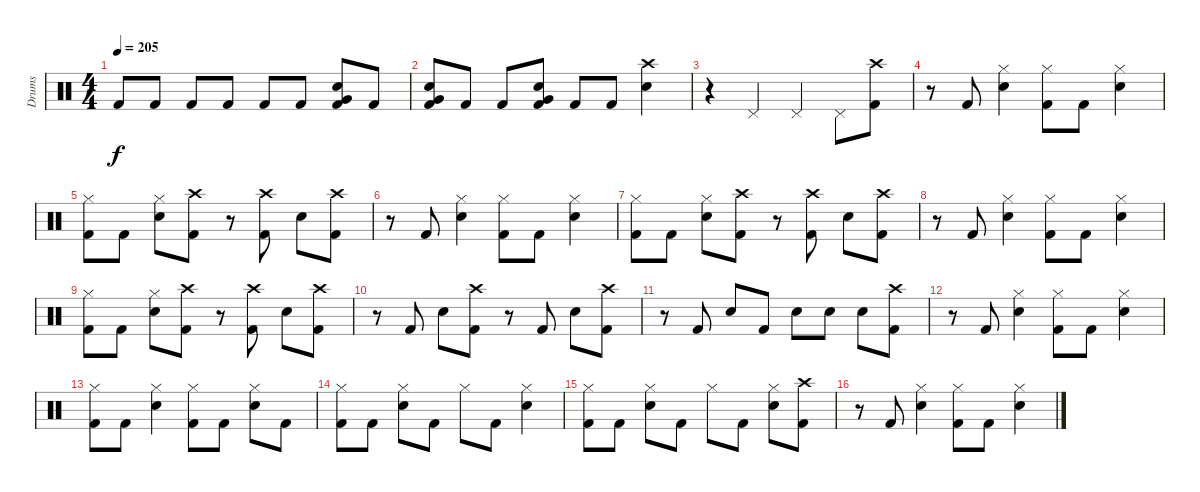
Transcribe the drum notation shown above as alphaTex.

\track ("Drums" "Drums") {instrument percussion}
\staff {score}
\articulation defaults
\ts (4 4)
\tempo 205
\clef neutral
\ks c "Kick (hit) 2".8{dy f} "Kick (hit) 2".8 "Kick (hit) 2".8 "Kick (hit) 2".8 "Kick (hit) 2".8 "Kick (hit) 2".8
("Kick (hit) 2" "Very Low Tom (hit)" "Snare (hit) 2").8 "Kick (hit) 2".8 |
("Kick (hit) 2" "Very Low Tom (hit)" "Snare (hit) 2").8 "Kick (hit) 2".8 "Kick (hit) 2".8 ("Kick (hit) 2" "Very Low Tom (hit)" "Snare (hit) 2").8 "Kick (hit) 2".8 "Kick (hit) 2".8 ("Snare (hit) 2" "Crash high (hit)").4 |
r.4 "Pedal Hi-Hat (hit)".4 "Pedal Hi-Hat (hit)".4 "Pedal Hi-Hat (hit)".8 ("Kick (hit) 2" "Crash high (hit)").8 |
r.8 "Kick (hit) 2".8 ("Snare (hit) 2" "Hi-Hat (closed)").4 ("Hi-Hat (closed)" "Kick (hit) 2").8 "Kick (hit) 2".8 ("Hi-Hat (closed)" "Snare (hit) 2").4 |
("Hi-Hat (closed)" "Kick (hit) 2").8 "Kick (hit) 2".8 ("Hi-Hat (closed)" "Snare (hit) 2").8 ("Kick (hit) 2" "Crash high (hit)").8 r.8 ("Kick (hit) 2" "Crash high (hit)").8 "Snare (hit) 2".8 ("Kick (hit) 2" "Crash high (hit)").8 |
r.8 "Kick (hit) 2".8 ("Snare (hit) 2" "Hi-Hat (closed)").4 ("Hi-Hat (closed)" "Kick (hit) 2").8 "Kick (hit) 2".8 ("Hi-Hat (closed)" "Snare (hit) 2").4 |
("Hi-Hat (closed)" "Kick (hit) 2").8 "Kick (hit) 2".8 ("Hi-Hat (closed)" "Snare (hit) 2").8 ("Kick (hit) 2" "Crash high (hit)").8 r.8 ("Kick (hit) 2" "Crash high (hit)").8 "Snare (hit) 2".8 ("Kick (hit) 2" "Crash high (hit)").8 |
r.8 "Kick (hit) 2".8 ("Snare (hit) 2" "Hi-Hat (closed)").4 ("Hi-Hat (closed)" "Kick (hit) 2").8 "Kick (hit) 2".8 ("Hi-Hat (closed)" "Snare (hit) 2").4 |
("Hi-Hat (closed)" "Kick (hit) 2").8 "Kick (hit) 2".8 ("Hi-Hat (closed)" "Snare (hit) 2").8 ("Kick (hit) 2" "Crash high (hit)").8 r.8 ("Kick (hit) 2" "Crash high (hit)").8 "Snare (hit) 2".8 ("Kick (hit) 2" "Crash high (hit)").8 |
r.8 "Kick (hit) 2".8 "Snare (hit) 2".8 ("Kick (hit) 2" "Crash high (hit)").8 r.8 "Kick (hit) 2".8 "Snare (hit) 2".8 ("Kick (hit) 2" "Crash high (hit)").8 |
r.8 "Kick (hit) 2".8 "Snare (hit) 2".8 "Kick (hit) 2".8 "Snare (hit) 2".8 "Snare (hit) 2".8 "Snare (hit) 2".8 ("Kick (hit) 2" "Crash high (hit)").8 |
r.8 "Kick (hit) 2".8 ("Snare (hit) 2" "Hi-Hat (closed)").4 ("Kick (hit) 2" "Hi-Hat (closed)").8 "Kick (hit) 2".8 ("Snare (hit) 2" "Hi-Hat (closed)").4 |
("Hi-Hat (closed)" "Kick (hit) 2").8 "Kick (hit) 2".8 ("Hi-Hat (closed)" "Snare (hit) 2").4 ("Hi-Hat (closed)" "Kick (hit) 2").8 "Kick (hit) 2".8 ("Hi-Hat (closed)" "Snare (hit) 2").8 "Kick (hit) 2".8 |
("Kick (hit) 2" "Hi-Hat (closed)").8 "Kick (hit) 2".8 ("Hi-Hat (closed)" "Snare (hit) 2").8 "Kick (hit) 2".8 "Hi-Hat (closed)".8 "Kick (hit) 2".8 ("Hi-Hat (closed)" "Snare (hit) 2").4 |
("Hi-Hat (closed)" "Kick (hit) 2").8 "Kick (hit) 2".8 ("Hi-Hat (closed)" "Snare (hit) 2").8 "Kick (hit) 2".8 "Hi-Hat (closed)".8 "Kick (hit) 2".8 ("Snare (hit) 2" "Hi-Hat (closed)").8 ("Crash high (hit)" "Kick (hit) 2").8 |
r.8 "Kick (hit) 2".8 ("Snare (hit) 2" "Hi-Hat (closed)").4 ("Kick (hit) 2" "Hi-Hat (closed)").8 "Kick (hit) 2".8 ("Hi-Hat (closed)" "Snare (hit) 2").4
